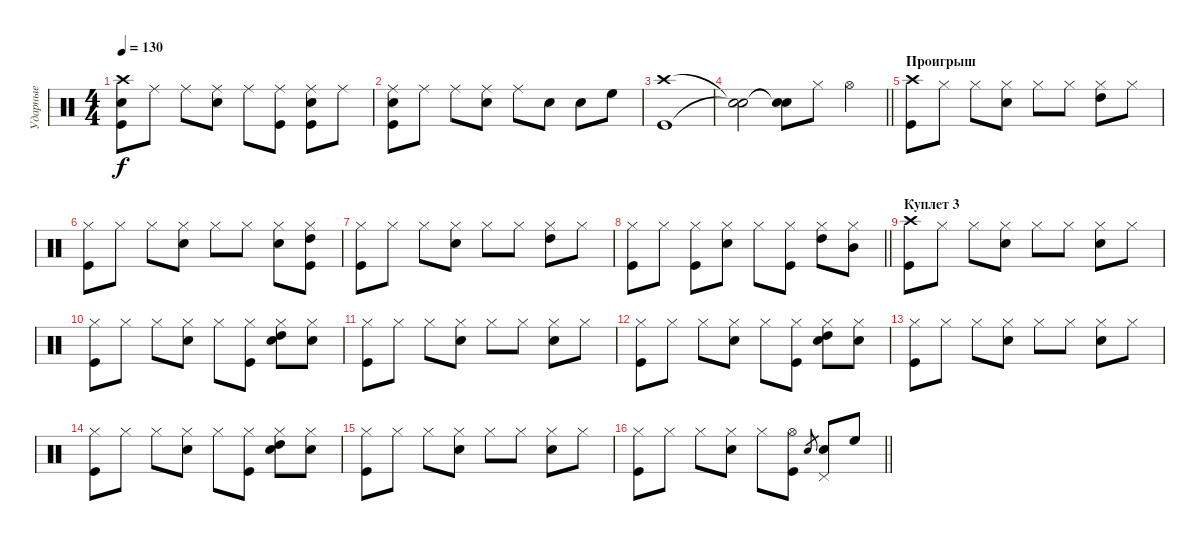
\track ("Ударные" "Ударные") {instrument percussion}
\staff {score}
\articulation defaults
\ts (4 4)
\tempo 130
\clef neutral
\ks c
("Crash high (hit)" "Snare (hit) 2" "Kick (hit)").8{dy f} "Ride (middle)".8 "Ride (middle)".8 ("Ride (middle)" "Snare (hit) 2").8 "Ride (middle)".8 ("Ride (middle)" "Kick (hit)").8 ("Ride (middle)" "Snare (hit) 2" "Kick (hit)").8 "Ride (middle)".8 |
("Ride (middle)" "Snare (hit) 2" "Kick (hit)").8 "Ride (middle)".8 "Ride (middle)".8 ("Ride (middle)" "Snare (hit) 2").8 "Ride (middle)".8 "Snare (hit) 2".8 "Snare (hit) 2".8 "High Floor Tom (hit)".8 |
("Crash high (hit)" "Kick (hit)").1 |
\barLineRight lightlight
("Snare (hit)"{t} "Snare (hit)"{t}).2 ("Snare (hit)"{t} "Snare (hit)"{t}).8 "Hi-Hat (closed)".8 "Hi-Hat (open)".4 |
\section ("" "Проигрыш")
("Crash high (hit)" "Kick (hit)").8 "Hi-Hat (closed)".8 "Hi-Hat (closed)".8 ("Hi-Hat (closed)" "Snare (hit) 2").8 "Hi-Hat (closed)".8 "Hi-Hat (closed)".8 ("Hi-Hat (closed)" "High Tom (hit)").8 "Hi-Hat (closed)".8 |
("Hi-Hat (closed)" "Kick (hit)").8 "Hi-Hat (closed)".8 "Hi-Hat (closed)".8 ("Hi-Hat (closed)" "Snare (hit) 2").8 "Hi-Hat (closed)".8 "Hi-Hat (closed)".8 ("Hi-Hat (closed)" "Snare (hit) 2").8 ("Hi-Hat (closed)" "High Tom (hit)" "Kick (hit)").8 |
("Hi-Hat (closed)" "Kick (hit)").8 "Hi-Hat (closed)".8 "Hi-Hat (closed)".8 ("Hi-Hat (closed)" "Snare (hit) 2").8 "Hi-Hat (closed)".8 "Hi-Hat (closed)".8 ("Hi-Hat (closed)" "High Tom (hit)").8 "Hi-Hat (closed)".8 |
\barLineRight lightlight
("Hi-Hat (closed)" "Kick (hit)").8 "Hi-Hat (closed)".8 ("Hi-Hat (closed)" "Kick (hit)").8 ("Hi-Hat (closed)" "Snare (hit) 2").8 "Hi-Hat (closed)".8 ("Hi-Hat (closed)" "Kick (hit)").8 ("Hi-Hat (closed)" "High Tom (hit)").8 ("Hi-Hat (closed)" "Mid Tom (hit)").8 |
\section ("" "Куплет 3")
("Crash high (hit)" "Kick (hit)").8 "Hi-Hat (closed)".8 "Hi-Hat (closed)".8 ("Hi-Hat (closed)" "Snare (hit) 2").8 "Hi-Hat (closed)".8 "Hi-Hat (closed)".8 ("Hi-Hat (closed)" "Snare (hit) 2").8 "Hi-Hat (closed)".8 |
("Hi-Hat (closed)" "Kick (hit)").8 "Hi-Hat (closed)".8 "Hi-Hat (closed)".8 ("Hi-Hat (closed)" "Snare (hit) 2").8 "Hi-Hat (closed)".8 ("Hi-Hat (closed)" "Kick (hit)").8 ("Hi-Hat (closed)" "High Tom (hit)" "Snare (hit) 2").8 ("Hi-Hat (closed)" "Snare (hit) 2").8 |
("Hi-Hat (closed)" "Kick (hit)").8 "Hi-Hat (closed)".8 "Hi-Hat (closed)".8 ("Hi-Hat (closed)" "Snare (hit) 2").8 "Hi-Hat (closed)".8 "Hi-Hat (closed)".8 ("Hi-Hat (closed)" "Snare (hit) 2").8 "Hi-Hat (closed)".8 |
("Hi-Hat (closed)" "Kick (hit)").8 "Hi-Hat (closed)".8 "Hi-Hat (closed)".8 ("Hi-Hat (closed)" "Snare (hit) 2").8 "Hi-Hat (closed)".8 ("Hi-Hat (closed)" "Kick (hit)").8 ("Hi-Hat (closed)" "High Tom (hit)" "Snare (hit) 2").8 ("Hi-Hat (closed)" "Snare (hit) 2").8 |
("Hi-Hat (closed)" "Kick (hit)").8 "Hi-Hat (closed)".8 "Hi-Hat (closed)".8 ("Hi-Hat (closed)" "Snare (hit) 2").8 "Hi-Hat (closed)".8 "Hi-Hat (closed)".8 ("Hi-Hat (closed)" "Snare (hit) 2").8 "Hi-Hat (closed)".8 |
("Hi-Hat (closed)" "Kick (hit)").8 "Hi-Hat (closed)".8 "Hi-Hat (closed)".8 ("Hi-Hat (closed)" "Snare (hit) 2").8 "Hi-Hat (closed)".8 ("Hi-Hat (closed)" "Kick (hit)").8 ("Hi-Hat (closed)" "High Tom (hit)" "Snare (hit) 2").8 ("Hi-Hat (closed)" "Snare (hit) 2").8 |
("Hi-Hat (closed)" "Kick (hit)").8 "Hi-Hat (closed)".8 "Hi-Hat (closed)".8 ("Hi-Hat (closed)" "Snare (hit) 2").8 "Hi-Hat (closed)".8 "Hi-Hat (closed)".8 ("Hi-Hat (closed)" "Snare (hit) 2").8 "Hi-Hat (closed)".8 |
\barLineRight lightlight
("Hi-Hat (closed)" "Kick (hit)").8 "Hi-Hat (closed)".8 "Hi-Hat (closed)".8 ("Hi-Hat (closed)" "Snare (hit) 2").8 "Hi-Hat (closed)".8 ("Hi-Hat (open)" "Kick (hit)").8 "Snare (hit) 2".8{gr} ("Pedal Hi-Hat (hit)" "Snare (hit) 2").8 "High Floor Tom (hit)".8
